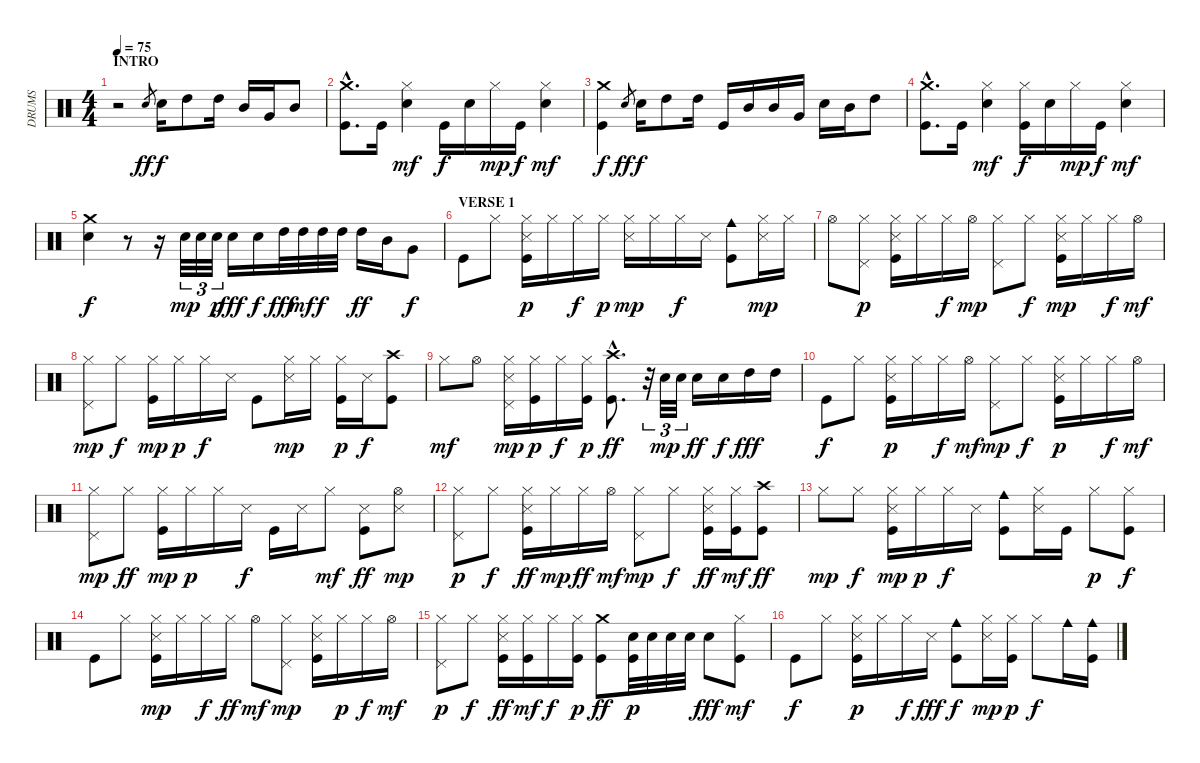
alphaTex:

\track ("DRUMS" "DRUMS") {instrument percussion}
\staff {score}
\articulation defaults
\ts (4 4)
\section ("" "INTRO")
\tempo 75
\clef neutral
\ks c
r.2{dy ff} "Electric Snare (hit)".8{gr} "Electric Snare (hit)".16{dy f} "High Tom (hit)".8 "High Tom (hit)".16 "Mid Tom (hit)".16 "Very Low Tom (hit)".16 "Mid Tom (hit)".8 |
("Crash medium (hit)"{hac} "Kick (hit)"{hac}).8{d} "Kick (hit)".16 ("Hi-Hat (closed)" "Electric Snare (hit)").4{dy mf} "Kick (hit)".16{dy f} "Electric Snare (hit)".16 "Hi-Hat (closed)".16{dy mp} "Kick (hit)".16{dy f} ("Hi-Hat (closed)" "Electric Snare (hit)").4{dy mf} |
("Crash medium (hit)" "Kick (hit)").4{dy f} "Electric Snare (hit)".8{gr dy ff} "Electric Snare (hit)".16{dy f} "High Tom (hit)".8 "High Tom (hit)".16 "Kick (hit)".16 "Mid Tom (hit)".16 "Mid Tom (hit)".16 "Very Low Tom (hit)".16 "Electric Snare (hit)".16 "Mid Tom (hit)".16 "High Tom (hit)".8 |
("Crash medium (hit)"{hac} "Kick (hit)"{hac}).8{d} "Kick (hit)".16 ("Hi-Hat (closed)" "Electric Snare (hit)").4{dy mf} ("Hi-Hat (closed)" "Kick (hit)").16{dy f} "Electric Snare (hit)".16 "Hi-Hat (closed)".16{dy mp} "Kick (hit)".16{dy f} ("Hi-Hat (closed)" "Electric Snare (hit)").4{dy mf} |
("Crash medium (hit)" "Electric Snare (hit)").4{dy f} r.8 r.16 "Electric Snare (hit)".32{tu (3 2) dy mp} "Electric Snare (hit)".32{tu (3 2)} "Electric Snare (hit)".32{tu (3 2) dy p} "Electric Snare (hit)".16{dy fff} "Electric Snare (hit)".16{dy f} "High Tom (hit)".32{dy fff} "High Tom (hit)".32{dy mf} "High Tom (hit)".32{dy f} "High Tom (hit)".32 "High Tom (hit)".16{dy ff} "Mid Tom (hit)".16 "Very Low Tom (hit)".8{dy f} |
\section ("" "VERSE 1")
"Kick (hit)".8 "Hi-Hat (closed)".8 ("Hi-Hat (closed)" "Snare (side stick) 3" "Kick (hit)").16{dy p} "Hi-Hat (closed)".16 "Hi-Hat (closed)".16{dy f} "Hi-Hat (closed)".16{dy p} ("Hi-Hat (closed)" "Snare (side stick) 3").16{dy mp} "Hi-Hat (closed)".16 "Hi-Hat (closed)".16{dy f} "Snare (side stick) 3".16 ("Cowbell medium (hit)" "Kick (hit)").8 ("Hi-Hat (closed)" "Snare (side stick) 3").16{dy mp} "Hi-Hat (closed)".16 |
"Hi-Hat (open)".8 ("Hi-Hat (closed)" "Pedal Hi-Hat (hit)").8{dy p} ("Hi-Hat (closed)" "Snare (side stick) 3" "Kick (hit)").16 "Hi-Hat (closed)".16 "Hi-Hat (closed)".16{dy f} "Hi-Hat (open)".16{dy mp} ("Hi-Hat (closed)" "Pedal Hi-Hat (hit)").8 "Hi-Hat (closed)".8{dy f} ("Hi-Hat (closed)" "Snare (side stick) 3" "Kick (hit)").16{dy mp} "Hi-Hat (closed)".16 "Hi-Hat (closed)".16{dy f} "Hi-Hat (open)".16{dy mf} |
("Hi-Hat (closed)" "Pedal Hi-Hat (hit)").8{dy mp} "Hi-Hat (closed)".8{dy f} ("Hi-Hat (closed)" "Kick (hit)").16{dy mp} "Hi-Hat (closed)".16{dy p} "Hi-Hat (closed)".16{dy f} "Snare (side stick) 3".16 "Kick (hit)".8 ("Hi-Hat (closed)" "Snare (side stick) 3").16{dy mp} "Hi-Hat (closed)".16 ("Hi-Hat (closed)" "Kick (hit)").16{dy p} "Snare (side stick) 3".16{dy f} ("Crash high (hit)" "Kick (hit)").8 |
"Hi-Hat (closed)".8{dy mf} "Hi-Hat (open)".8 ("Hi-Hat (closed)" "Snare (side stick) 3" "Pedal Hi-Hat (hit)").16{dy mp} ("Hi-Hat (closed)" "Kick (hit)").16{dy p} "Hi-Hat (closed)".16{dy f} ("Hi-Hat (closed)" "Kick (hit)").16{dy p} ("Crash high (hit)"{hac} "Kick (hit)"{hac}).8{d dy ff} r.32{tu (3 2)} "Electric Snare (hit)".32{tu (3 2) dy mp} "Electric Snare (hit)".32{tu (3 2)} "Electric Snare (hit)".16{dy ff} "Electric Snare (hit)".16{dy f} "High Tom (hit)".16{dy fff} "High Tom (hit)".16 |
"Kick (hit)".8{dy f} "Hi-Hat (closed)".8 ("Hi-Hat (closed)" "Snare (side stick) 3" "Kick (hit)").16{dy p} "Hi-Hat (closed)".16 "Hi-Hat (closed)".16{dy f} "Hi-Hat (open)".16{dy mf} ("Hi-Hat (closed)" "Pedal Hi-Hat (hit)").8{dy mp} "Hi-Hat (closed)".8{dy f} ("Hi-Hat (closed)" "Snare (side stick) 3" "Kick (hit)").16{dy p} "Hi-Hat (closed)".16 "Hi-Hat (closed)".16{dy f} "Hi-Hat (open)".16{dy mf} |
("Hi-Hat (closed)" "Pedal Hi-Hat (hit)").8{dy mp} "Hi-Hat (closed)".8{dy ff} ("Hi-Hat (closed)" "Kick (hit)").16{dy mp} "Hi-Hat (closed)".16{dy p} "Hi-Hat (closed)".16 "Snare (side stick) 3".16{dy f} "Kick (hit)".16 "Snare (side stick) 3".16 "Hi-Hat (closed)".8{dy mf} ("Snare (side stick) 3" "Kick (hit)").8{dy ff} ("Hi-Hat (open)" "Snare (side stick) 3").8{dy mp} |
("Hi-Hat (closed)" "Pedal Hi-Hat (hit)").8{dy p} "Hi-Hat (closed)".8{dy f} ("Hi-Hat (closed)" "Snare (side stick) 3" "Kick (hit)").16{dy ff} "Hi-Hat (closed)".16{dy mp} "Hi-Hat (closed)".16{dy ff} "Hi-Hat (open)".16{dy mf} ("Hi-Hat (closed)" "Pedal Hi-Hat (hit)").8{dy mp} "Hi-Hat (closed)".8{dy f} ("Hi-Hat (closed)" "Snare (side stick) 3" "Kick (hit)").16{dy ff} ("Hi-Hat (closed)" "Kick (hit)").16{dy mf} ("Crash high (hit)" "Kick (hit)").8{dy ff} |
"Hi-Hat (closed)".8{dy mp} "Hi-Hat (closed)".8{dy f} ("Hi-Hat (closed)" "Snare (side stick) 3" "Kick (hit)").16{dy mp} "Hi-Hat (closed)".16{dy p} "Hi-Hat (closed)".16{dy f} "Snare (side stick) 3".16 ("Cowbell medium (hit)" "Kick (hit)").8 ("Hi-Hat (closed)" "Snare (side stick) 3").16 "Kick (hit)".16 "Hi-Hat (closed)".8{dy p} ("Hi-Hat (closed)" "Kick (hit)").8{dy f} |
"Kick (hit)".8 "Hi-Hat (closed)".8 ("Hi-Hat (closed)" "Snare (side stick) 3" "Kick (hit)").16{dy mp} "Hi-Hat (closed)".16 "Hi-Hat (closed)".16{dy f} "Hi-Hat (closed)".16{dy ff} "Hi-Hat (open)".8{dy mf} ("Hi-Hat (closed)" "Pedal Hi-Hat (hit)").8{dy mp} ("Hi-Hat (closed)" "Snare (side stick) 3" "Kick (hit)").16 "Hi-Hat (closed)".16{dy p} "Hi-Hat (closed)".16{dy f} "Hi-Hat (open)".16{dy mf} |
("Hi-Hat (closed)" "Pedal Hi-Hat (hit)").8{dy p} "Hi-Hat (closed)".8{dy f} ("Hi-Hat (closed)" "Snare (side stick) 3" "Kick (hit)").16{dy ff} ("Hi-Hat (closed)" "Kick (hit)").16{dy mf} "Hi-Hat (closed)".16{dy f} ("Hi-Hat (closed)" "Kick (hit)").16{dy p} ("Crash medium (hit)" "Kick (hit)").8{dy ff} ("Electric Snare (hit)" "Kick (hit)").32{dy p} "Electric Snare (hit)".32 "Electric Snare (hit)".32 "Electric Snare (hit)".32 "Electric Snare (hit)".8{dy fff} ("Hi-Hat (closed)" "Kick (hit)").8{dy mf} |
"Kick (hit)".8{dy f} "Hi-Hat (closed)".8 ("Hi-Hat (closed)" "Snare (side stick) 3" "Kick (hit)").16{dy p} "Hi-Hat (closed)".16 "Hi-Hat (closed)".16{dy f} "Snare (side stick) 3".16{dy fff} ("Cowbell medium (hit)" "Kick (hit)").8{dy f} ("Hi-Hat (closed)" "Snare (side stick) 3").16{dy mp} ("Hi-Hat (closed)" "Kick (hit)").16{dy p} "Hi-Hat (closed)".8{dy f} "Cowbell medium (hit)".16 ("Cowbell medium (hit)" "Kick (hit)").16
